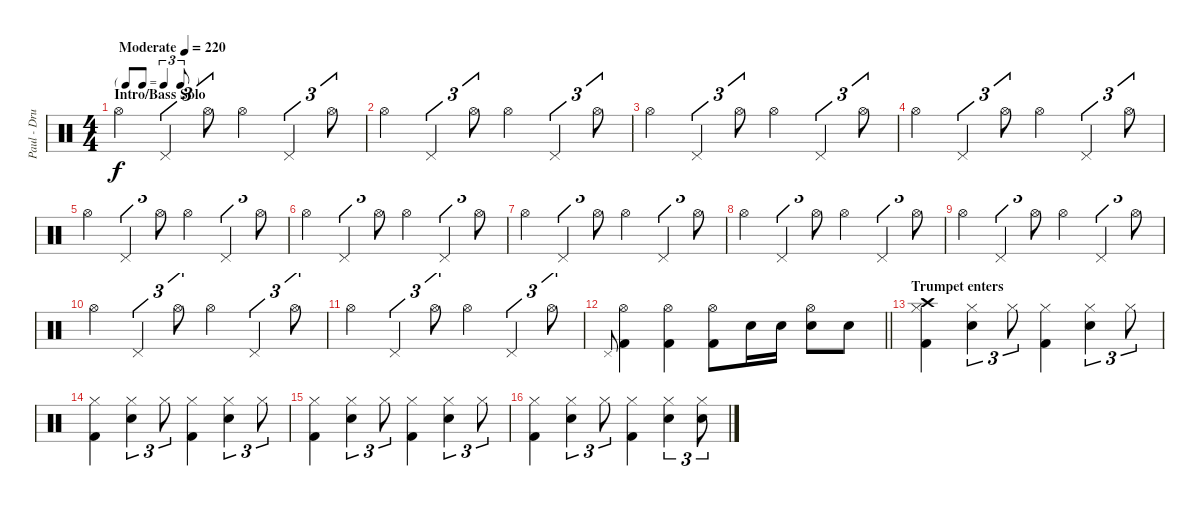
\track ("Paul - Drums" "Paul - Dru") {instrument percussion}
\staff {score}
\articulation defaults
\ts (4 4)
\tf triplet8th
\section ("" "Intro/Bass Solo")
\tempo (220 "Moderate")
\clef neutral
\ks c "Hi-Hat (open)".4{dy f} "Pedal Hi-Hat (hit)".4{tu (3 2)} "Hi-Hat (open)".8{tu (3 2)} "Hi-Hat (open)".4 "Pedal Hi-Hat (hit)".4{tu (3 2)} "Hi-Hat (open)".8{tu (3 2)}
|
"Hi-Hat (open)".4 "Pedal Hi-Hat (hit)".4{tu (3 2)} "Hi-Hat (open)".8{tu (3 2)} "Hi-Hat (open)".4 "Pedal Hi-Hat (hit)".4{tu (3 2)} "Hi-Hat (open)".8{tu (3 2)} |
"Hi-Hat (open)".4 "Pedal Hi-Hat (hit)".4{tu (3 2)} "Hi-Hat (open)".8{tu (3 2)} "Hi-Hat (open)".4 "Pedal Hi-Hat (hit)".4{tu (3 2)} "Hi-Hat (open)".8{tu (3 2)} |
"Hi-Hat (open)".4 "Pedal Hi-Hat (hit)".4{tu (3 2)} "Hi-Hat (open)".8{tu (3 2)} "Hi-Hat (open)".4 "Pedal Hi-Hat (hit)".4{tu (3 2)} "Hi-Hat (open)".8{tu (3 2)} |
"Hi-Hat (open)".4 "Pedal Hi-Hat (hit)".4{tu (3 2)} "Hi-Hat (open)".8{tu (3 2)} "Hi-Hat (open)".4 "Pedal Hi-Hat (hit)".4{tu (3 2)} "Hi-Hat (open)".8{tu (3 2)} |
"Hi-Hat (open)".4 "Pedal Hi-Hat (hit)".4{tu (3 2)} "Hi-Hat (open)".8{tu (3 2)} "Hi-Hat (open)".4 "Pedal Hi-Hat (hit)".4{tu (3 2)} "Hi-Hat (open)".8{tu (3 2)} |
"Hi-Hat (open)".4 "Pedal Hi-Hat (hit)".4{tu (3 2)} "Hi-Hat (open)".8{tu (3 2)} "Hi-Hat (open)".4 "Pedal Hi-Hat (hit)".4{tu (3 2)} "Hi-Hat (open)".8{tu (3 2)} |
"Hi-Hat (open)".4 "Pedal Hi-Hat (hit)".4{tu (3 2)} "Hi-Hat (open)".8{tu (3 2)} "Hi-Hat (open)".4 "Pedal Hi-Hat (hit)".4{tu (3 2)} "Hi-Hat (open)".8{tu (3 2)} |
"Hi-Hat (open)".4 "Pedal Hi-Hat (hit)".4{tu (3 2)} "Hi-Hat (open)".8{tu (3 2)} "Hi-Hat (open)".4 "Pedal Hi-Hat (hit)".4{tu (3 2)} "Hi-Hat (open)".8{tu (3 2)} |
"Hi-Hat (open)".4 "Pedal Hi-Hat (hit)".4{tu (3 2)} "Hi-Hat (open)".8{tu (3 2)} "Hi-Hat (open)".4 "Pedal Hi-Hat (hit)".4{tu (3 2)} "Hi-Hat (open)".8{tu (3 2)} |
"Hi-Hat (open)".4 "Pedal Hi-Hat (hit)".4{tu (3 2)} "Hi-Hat (open)".8{tu (3 2)} "Hi-Hat (open)".4 "Pedal Hi-Hat (hit)".4{tu (3 2)} "Hi-Hat (open)".8{tu (3 2)} |
\barLineRight lightlight "Pedal Hi-Hat (hit)".8{gr onbeat}
("Hi-Hat (open)" "Kick (hit) 2").4 ("Hi-Hat (open)" "Kick (hit) 2").4 ("Hi-Hat (open)" "Kick (hit) 2").8 "Electric Snare (hit)".16 "Electric Snare (hit)".16 ("Hi-Hat (open)" "Electric Snare (hit)").8 "Electric Snare (hit)".8 |
\section ("" "Trumpet enters")
("Hi-Hat (closed)" "Crash high (hit)" "Kick (hit) 2").4 ("Hi-Hat (closed)" "Electric Snare (hit)").4{tu (3 2)} "Hi-Hat (closed)".8{tu (3 2)} ("Hi-Hat (closed)" "Kick (hit) 2").4 ("Hi-Hat (closed)" "Electric Snare (hit)").4{tu (3 2)} "Hi-Hat (closed)".8{tu (3 2)} |
("Hi-Hat (closed)" "Kick (hit) 2").4 ("Hi-Hat (closed)" "Electric Snare (hit)").4{tu (3 2)} "Hi-Hat (closed)".8{tu (3 2)} ("Hi-Hat (closed)" "Kick (hit) 2").4 ("Hi-Hat (closed)" "Electric Snare (hit)").4{tu (3 2)} "Hi-Hat (closed)".8{tu (3 2)} |
("Hi-Hat (closed)" "Kick (hit) 2").4 ("Hi-Hat (closed)" "Electric Snare (hit)").4{tu (3 2)} "Hi-Hat (closed)".8{tu (3 2)} ("Hi-Hat (closed)" "Kick (hit) 2").4 ("Hi-Hat (closed)" "Electric Snare (hit)").4{tu (3 2)} "Hi-Hat (closed)".8{tu (3 2)} |
("Hi-Hat (closed)" "Kick (hit) 2").4 ("Hi-Hat (closed)" "Electric Snare (hit)").4{tu (3 2)} "Hi-Hat (closed)".8{tu (3 2)} ("Hi-Hat (closed)" "Kick (hit) 2").4 ("Hi-Hat (closed)" "Electric Snare (hit)").4{tu (3 2)} ("Hi-Hat (closed)" "Electric Snare (hit)").8{tu (3 2)}
